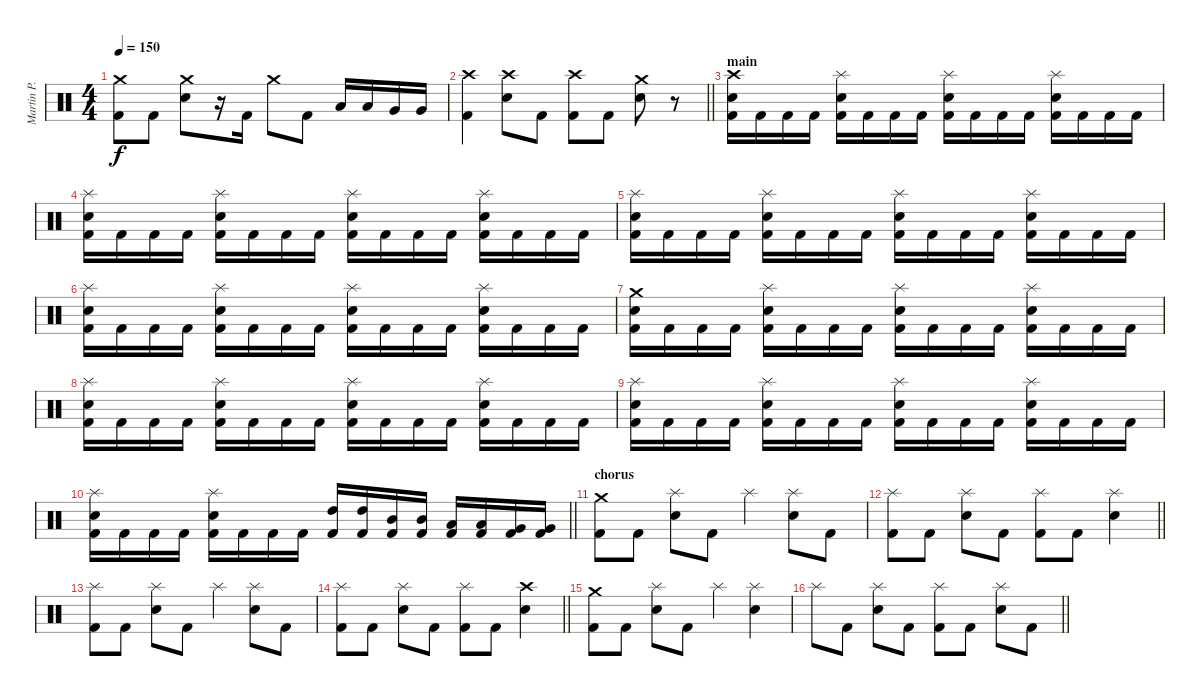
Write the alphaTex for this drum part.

\track ("Martin P." "Martin P.") {instrument percussion}
\staff {score}
\articulation defaults
\ts (4 4)
\tempo 150
\clef neutral
\ks c
("Crash medium (hit)" "Kick (hit) 2").8{dy f} "Kick (hit) 2".8 ("Crash medium (hit)" "Electric Snare (hit)").8 r.16 "Kick (hit) 2".16 "Crash medium (hit)".8 "Kick (hit) 2".8 "Low Tom (hit)".16 "Low Tom (hit)".16 "Very Low Tom (hit)".16 "Very Low Tom (hit)".16 |
\barLineRight lightlight
("Crash high (hit)" "Kick (hit) 2").4 ("Crash high (hit)" "Electric Snare (hit)").8 "Kick (hit) 2".8 ("Crash high (hit)" "Kick (hit) 2").8 "Kick (hit) 2".8 ("Crash medium (hit)" "Electric Snare (hit)").8 r.8 |
\section ("" "main")
("Crash high (hit)" "Electric Snare (hit)" "Kick (hit) 2").16 "Kick (hit) 2".16 "Kick (hit) 2".16 "Kick (hit) 2".16 ("Splash (hit)" "Electric Snare (hit)" "Kick (hit) 2").16 "Kick (hit) 2".16 "Kick (hit) 2".16 "Kick (hit) 2".16 ("Splash (hit)" "Electric Snare (hit)" "Kick (hit) 2").16 "Kick (hit) 2".16 "Kick (hit) 2".16 "Kick (hit) 2".16 ("Splash (hit)" "Electric Snare (hit)" "Kick (hit) 2").16 "Kick (hit) 2".16 "Kick (hit) 2".16 "Kick (hit) 2".16 |
("Splash (hit)" "Electric Snare (hit)" "Kick (hit) 2").16 "Kick (hit) 2".16 "Kick (hit) 2".16 "Kick (hit) 2".16 ("Splash (hit)" "Electric Snare (hit)" "Kick (hit) 2").16 "Kick (hit) 2".16 "Kick (hit) 2".16 "Kick (hit) 2".16 ("Splash (hit)" "Electric Snare (hit)" "Kick (hit) 2").16 "Kick (hit) 2".16 "Kick (hit) 2".16 "Kick (hit) 2".16 ("Splash (hit)" "Electric Snare (hit)" "Kick (hit) 2").16 "Kick (hit) 2".16 "Kick (hit) 2".16 "Kick (hit) 2".16 |
("Splash (hit)" "Electric Snare (hit)" "Kick (hit) 2").16 "Kick (hit) 2".16 "Kick (hit) 2".16 "Kick (hit) 2".16 ("Splash (hit)" "Electric Snare (hit)" "Kick (hit) 2").16 "Kick (hit) 2".16 "Kick (hit) 2".16 "Kick (hit) 2".16 ("Splash (hit)" "Electric Snare (hit)" "Kick (hit) 2").16 "Kick (hit) 2".16 "Kick (hit) 2".16 "Kick (hit) 2".16 ("Splash (hit)" "Electric Snare (hit)" "Kick (hit) 2").16 "Kick (hit) 2".16 "Kick (hit) 2".16 "Kick (hit) 2".16 |
("Splash (hit)" "Electric Snare (hit)" "Kick (hit) 2").16 "Kick (hit) 2".16 "Kick (hit) 2".16 "Kick (hit) 2".16 ("Splash (hit)" "Electric Snare (hit)" "Kick (hit) 2").16 "Kick (hit) 2".16 "Kick (hit) 2".16 "Kick (hit) 2".16 ("Splash (hit)" "Electric Snare (hit)" "Kick (hit) 2").16 "Kick (hit) 2".16 "Kick (hit) 2".16 "Kick (hit) 2".16 ("Splash (hit)" "Electric Snare (hit)" "Kick (hit) 2").16 "Kick (hit) 2".16 "Kick (hit) 2".16 "Kick (hit) 2".16 |
("Crash medium (hit)" "Electric Snare (hit)" "Kick (hit) 2").16 "Kick (hit) 2".16 "Kick (hit) 2".16 "Kick (hit) 2".16 ("Splash (hit)" "Electric Snare (hit)" "Kick (hit) 2").16 "Kick (hit) 2".16 "Kick (hit) 2".16 "Kick (hit) 2".16 ("Splash (hit)" "Electric Snare (hit)" "Kick (hit) 2").16 "Kick (hit) 2".16 "Kick (hit) 2".16 "Kick (hit) 2".16 ("Splash (hit)" "Electric Snare (hit)" "Kick (hit) 2").16 "Kick (hit) 2".16 "Kick (hit) 2".16 "Kick (hit) 2".16 |
("Splash (hit)" "Electric Snare (hit)" "Kick (hit) 2").16 "Kick (hit) 2".16 "Kick (hit) 2".16 "Kick (hit) 2".16 ("Splash (hit)" "Electric Snare (hit)" "Kick (hit) 2").16 "Kick (hit) 2".16 "Kick (hit) 2".16 "Kick (hit) 2".16 ("Splash (hit)" "Electric Snare (hit)" "Kick (hit) 2").16 "Kick (hit) 2".16 "Kick (hit) 2".16 "Kick (hit) 2".16 ("Splash (hit)" "Electric Snare (hit)" "Kick (hit) 2").16 "Kick (hit) 2".16 "Kick (hit) 2".16 "Kick (hit) 2".16 |
("Splash (hit)" "Electric Snare (hit)" "Kick (hit) 2").16 "Kick (hit) 2".16 "Kick (hit) 2".16 "Kick (hit) 2".16 ("Splash (hit)" "Electric Snare (hit)" "Kick (hit) 2").16 "Kick (hit) 2".16 "Kick (hit) 2".16 "Kick (hit) 2".16 ("Splash (hit)" "Electric Snare (hit)" "Kick (hit) 2").16 "Kick (hit) 2".16 "Kick (hit) 2".16 "Kick (hit) 2".16 ("Splash (hit)" "Electric Snare (hit)" "Kick (hit) 2").16 "Kick (hit) 2".16 "Kick (hit) 2".16 "Kick (hit) 2".16 |
\barLineRight lightlight
("Splash (hit)" "Electric Snare (hit)" "Kick (hit) 2").16 "Kick (hit) 2".16 "Kick (hit) 2".16 "Kick (hit) 2".16 ("Splash (hit)" "Electric Snare (hit)" "Kick (hit) 2").16 "Kick (hit) 2".16 "Kick (hit) 2".16 "Kick (hit) 2".16 ("High Tom (hit)" "Kick (hit) 2").16 ("High Tom (hit)" "Kick (hit) 2").16 ("Mid Tom (hit)" "Kick (hit) 2").16 ("Mid Tom (hit)" "Kick (hit) 2").16 ("Low Tom (hit)" "Kick (hit) 2").16 ("Low Tom (hit)" "Kick (hit) 2").16 ("Very Low Tom (hit)" "Kick (hit) 2").16 ("Very Low Tom (hit)" "Kick (hit) 2").16 |
\section ("" "chorus")
("Kick (hit) 2" "Crash medium (hit)").8 "Kick (hit) 2".8 ("Electric Snare (hit)" "Splash (hit)").8 "Kick (hit) 2".8 "Splash (hit)".4 ("Electric Snare (hit)" "Splash (hit)").8 "Kick (hit) 2".8 |
\barLineRight lightlight
("Kick (hit) 2" "Splash (hit)").8 "Kick (hit) 2".8 ("Electric Snare (hit)" "Splash (hit)").8 "Kick (hit) 2".8 ("Kick (hit) 2" "Splash (hit)").8 "Kick (hit) 2".8 ("Electric Snare (hit)" "Splash (hit)").4 |
("Splash (hit)" "Kick (hit) 2").8 "Kick (hit) 2".8 ("Electric Snare (hit)" "Splash (hit)").8 "Kick (hit) 2".8 "Splash (hit)".4 ("Electric Snare (hit)" "Splash (hit)").8 "Kick (hit) 2".8 |
\barLineRight lightlight
("Kick (hit) 2" "Splash (hit)").8 "Kick (hit) 2".8 ("Electric Snare (hit)" "Splash (hit)").8 "Kick (hit) 2".8 ("Kick (hit) 2" "Splash (hit)").8 "Kick (hit) 2".8 ("Electric Snare (hit)" "Crash high (hit)").4 |
("Kick (hit) 2" "Crash medium (hit)").8 "Kick (hit) 2".8 ("Electric Snare (hit)" "Splash (hit)").8 "Kick (hit) 2".8 "Splash (hit)".4 ("Electric Snare (hit)" "Splash (hit)").4 |
\barLineRight lightlight "Splash (hit)".8 "Kick (hit) 2".8
("Electric Snare (hit)" "Splash (hit)").8 "Kick (hit) 2".8 ("Kick (hit) 2" "Splash (hit)").8 "Kick (hit) 2".8 ("Electric Snare (hit)" "Splash (hit)").8 "Kick (hit) 2".8
